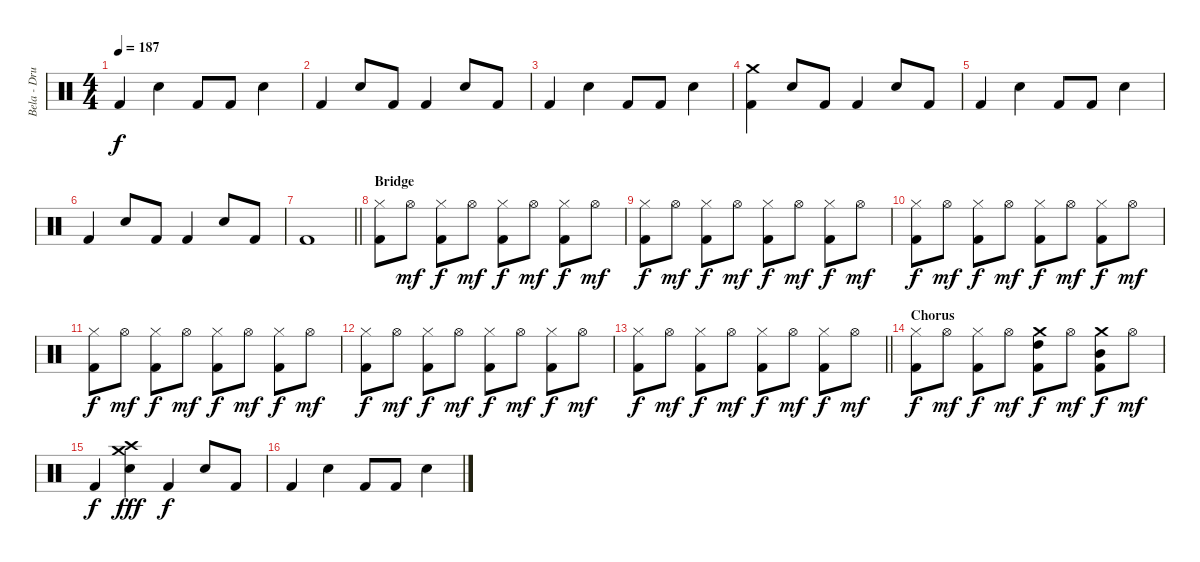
\track ("Bela - Drums" "Bela - Dru") {instrument percussion}
\staff {score}
\articulation defaults
\ts (4 4)
\tempo 187
\clef neutral
\ks c "Kick (hit) 2".4{dy f} "Snare (hit) 2".4 "Kick (hit) 2".8 "Kick (hit) 2".8 "Snare (hit) 2".4
|
"Kick (hit) 2".4 "Snare (hit) 2".8 "Kick (hit) 2".8 "Kick (hit) 2".4 "Snare (hit) 2".8 "Kick (hit) 2".8 |
"Kick (hit) 2".4 "Snare (hit) 2".4 "Kick (hit) 2".8 "Kick (hit) 2".8 "Snare (hit) 2".4 |
("Crash medium (hit)" "Kick (hit) 2").4 "Snare (hit) 2".8 "Kick (hit) 2".8 "Kick (hit) 2".4 "Snare (hit) 2".8 "Kick (hit) 2".8 |
"Kick (hit) 2".4 "Snare (hit) 2".4 "Kick (hit) 2".8 "Kick (hit) 2".8 "Snare (hit) 2".4 |
"Kick (hit) 2".4 "Snare (hit) 2".8 "Kick (hit) 2".8 "Kick (hit) 2".4 "Snare (hit) 2".8 "Kick (hit) 2".8 |
\barLineRight lightlight "Kick (hit) 2".1
|
\section ("" "Bridge")
("Hi-Hat (closed)" "Kick (hit) 2").8 "Hi-Hat (open)".8{dy mf} ("Hi-Hat (closed)" "Kick (hit) 2").8{dy f} "Hi-Hat (open)".8{dy mf} ("Hi-Hat (closed)" "Kick (hit) 2").8{dy f} "Hi-Hat (open)".8{dy mf} ("Hi-Hat (closed)" "Kick (hit) 2").8{dy f} "Hi-Hat (open)".8{dy mf} |
("Hi-Hat (closed)" "Kick (hit) 2").8{dy f} "Hi-Hat (open)".8{dy mf} ("Hi-Hat (closed)" "Kick (hit) 2").8{dy f} "Hi-Hat (open)".8{dy mf} ("Hi-Hat (closed)" "Kick (hit) 2").8{dy f} "Hi-Hat (open)".8{dy mf} ("Hi-Hat (closed)" "Kick (hit) 2").8{dy f} "Hi-Hat (open)".8{dy mf} |
("Hi-Hat (closed)" "Kick (hit) 2").8{dy f} "Hi-Hat (open)".8{dy mf} ("Hi-Hat (closed)" "Kick (hit) 2").8{dy f} "Hi-Hat (open)".8{dy mf} ("Hi-Hat (closed)" "Kick (hit) 2").8{dy f} "Hi-Hat (open)".8{dy mf} ("Hi-Hat (closed)" "Kick (hit) 2").8{dy f} "Hi-Hat (open)".8{dy mf} |
("Hi-Hat (closed)" "Kick (hit) 2").8{dy f} "Hi-Hat (open)".8{dy mf} ("Hi-Hat (closed)" "Kick (hit) 2").8{dy f} "Hi-Hat (open)".8{dy mf} ("Hi-Hat (closed)" "Kick (hit) 2").8{dy f} "Hi-Hat (open)".8{dy mf} ("Hi-Hat (closed)" "Kick (hit) 2").8{dy f} "Hi-Hat (open)".8{dy mf} |
("Hi-Hat (closed)" "Kick (hit) 2").8{dy f} "Hi-Hat (open)".8{dy mf} ("Hi-Hat (closed)" "Kick (hit) 2").8{dy f} "Hi-Hat (open)".8{dy mf} ("Hi-Hat (closed)" "Kick (hit) 2").8{dy f} "Hi-Hat (open)".8{dy mf} ("Hi-Hat (closed)" "Kick (hit) 2").8{dy f} "Hi-Hat (open)".8{dy mf} |
\barLineRight lightlight
("Hi-Hat (closed)" "Kick (hit) 2").8{dy f} "Hi-Hat (open)".8{dy mf} ("Hi-Hat (closed)" "Kick (hit) 2").8{dy f} "Hi-Hat (open)".8{dy mf} ("Hi-Hat (closed)" "Kick (hit) 2").8{dy f} "Hi-Hat (open)".8{dy mf} ("Hi-Hat (closed)" "Kick (hit) 2").8{dy f} "Hi-Hat (open)".8{dy mf} |
\section ("" "Chorus")
("Hi-Hat (closed)" "Kick (hit) 2").8{dy f} "Hi-Hat (open)".8{dy mf} ("Hi-Hat (closed)" "Kick (hit) 2").8{dy f} "Hi-Hat (open)".8{dy mf} ("Crash medium (hit)" "High Tom (hit)" "Kick (hit) 2").8{dy f} "Hi-Hat (open)".8{dy mf} ("Crash medium (hit)" "Mid Tom (hit)" "Kick (hit) 2").8{dy f} "Hi-Hat (open)".8{dy mf} |
"Kick (hit) 2".4{dy f} ("Crash medium (hit)" "Crash high (hit)" "Snare (hit) 2").4{dy fff} "Kick (hit) 2".4{dy f} "Snare (hit) 2".8 "Kick (hit) 2".8 |
"Kick (hit) 2".4 "Snare (hit) 2".4 "Kick (hit) 2".8 "Kick (hit) 2".8 "Snare (hit) 2".4
